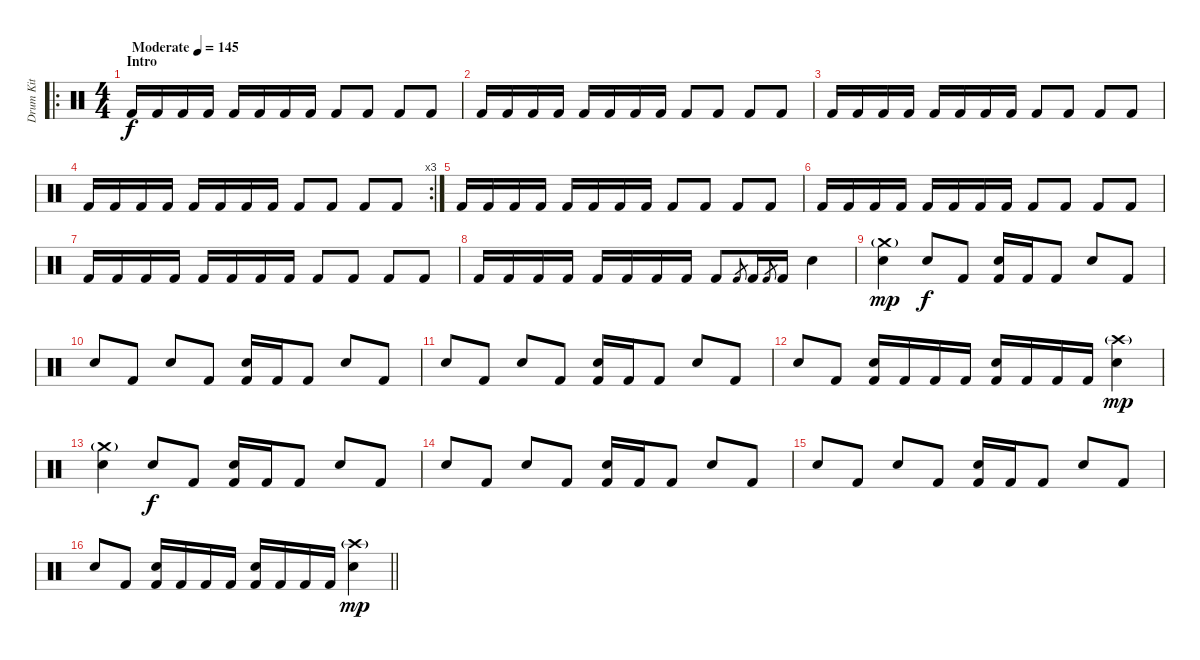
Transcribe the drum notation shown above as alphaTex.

\track ("Drum Kit" "Drum Kit") {instrument percussion}
\staff {score}
\articulation defaults
\ro
\ts (4 4)
\section ("" "Intro")
\tempo (145 "Moderate")
\clef neutral
\ks c "Kick (hit) 2".16{dy f} "Kick (hit) 2".16 "Kick (hit) 2".16 "Kick (hit) 2".16 "Kick (hit) 2".16 "Kick (hit) 2".16 "Kick (hit) 2".16 "Kick (hit) 2".16 "Kick (hit) 2".8 "Kick (hit) 2".8 "Kick (hit) 2".8 "Kick (hit) 2".8
|
"Kick (hit) 2".16 "Kick (hit) 2".16 "Kick (hit) 2".16 "Kick (hit) 2".16 "Kick (hit) 2".16 "Kick (hit) 2".16 "Kick (hit) 2".16 "Kick (hit) 2".16 "Kick (hit) 2".8 "Kick (hit) 2".8 "Kick (hit) 2".8 "Kick (hit) 2".8 |
"Kick (hit) 2".16 "Kick (hit) 2".16 "Kick (hit) 2".16 "Kick (hit) 2".16 "Kick (hit) 2".16 "Kick (hit) 2".16 "Kick (hit) 2".16 "Kick (hit) 2".16 "Kick (hit) 2".8 "Kick (hit) 2".8 "Kick (hit) 2".8 "Kick (hit) 2".8 |
\rc 3 "Kick (hit) 2".16 "Kick (hit) 2".16 "Kick (hit) 2".16 "Kick (hit) 2".16 "Kick (hit) 2".16 "Kick (hit) 2".16 "Kick (hit) 2".16 "Kick (hit) 2".16 "Kick (hit) 2".8 "Kick (hit) 2".8 "Kick (hit) 2".8 "Kick (hit) 2".8
|
"Kick (hit) 2".16 "Kick (hit) 2".16 "Kick (hit) 2".16 "Kick (hit) 2".16 "Kick (hit) 2".16 "Kick (hit) 2".16 "Kick (hit) 2".16 "Kick (hit) 2".16 "Kick (hit) 2".8 "Kick (hit) 2".8 "Kick (hit) 2".8 "Kick (hit) 2".8 |
"Kick (hit) 2".16 "Kick (hit) 2".16 "Kick (hit) 2".16 "Kick (hit) 2".16 "Kick (hit) 2".16 "Kick (hit) 2".16 "Kick (hit) 2".16 "Kick (hit) 2".16 "Kick (hit) 2".8 "Kick (hit) 2".8 "Kick (hit) 2".8 "Kick (hit) 2".8 |
"Kick (hit) 2".16 "Kick (hit) 2".16 "Kick (hit) 2".16 "Kick (hit) 2".16 "Kick (hit) 2".16 "Kick (hit) 2".16 "Kick (hit) 2".16 "Kick (hit) 2".16 "Kick (hit) 2".8 "Kick (hit) 2".8 "Kick (hit) 2".8 "Kick (hit) 2".8 |
"Kick (hit) 2".16 "Kick (hit) 2".16 "Kick (hit) 2".16 "Kick (hit) 2".16 "Kick (hit) 2".16 "Kick (hit) 2".16 "Kick (hit) 2".16 "Kick (hit) 2".16 "Kick (hit) 2".8 "Kick (hit) 2".8{gr} "Kick (hit) 2".16 "Kick (hit) 2".8{gr} "Kick (hit) 2".16 "Electric Snare (hit)".4 |
("Crash medium (hit)"{g} "Electric Snare (hit)").4{dy mp} "Electric Snare (hit)".8{dy f} "Kick (hit) 2".8 ("Electric Snare (hit)" "Kick (hit) 2").16 "Kick (hit) 2".16 "Kick (hit) 2".8 "Electric Snare (hit)".8 "Kick (hit) 2".8 |
"Electric Snare (hit)".8 "Kick (hit) 2".8 "Electric Snare (hit)".8 "Kick (hit) 2".8 ("Electric Snare (hit)" "Kick (hit) 2").16 "Kick (hit) 2".16 "Kick (hit) 2".8 "Electric Snare (hit)".8 "Kick (hit) 2".8 |
"Electric Snare (hit)".8 "Kick (hit) 2".8 "Electric Snare (hit)".8 "Kick (hit) 2".8 ("Electric Snare (hit)" "Kick (hit) 2").16 "Kick (hit) 2".16 "Kick (hit) 2".8 "Electric Snare (hit)".8 "Kick (hit) 2".8 |
"Electric Snare (hit)".8 "Kick (hit) 2".8 ("Electric Snare (hit)" "Kick (hit) 2").16 "Kick (hit) 2".16 "Kick (hit) 2".16 "Kick (hit) 2".16 ("Electric Snare (hit)" "Kick (hit) 2").16 "Kick (hit) 2".16 "Kick (hit) 2".16 "Kick (hit) 2".16 ("Crash high (hit)"{g} "Electric Snare (hit)").4{dy mp} |
("Crash medium (hit)"{g} "Electric Snare (hit)").4 "Electric Snare (hit)".8{dy f} "Kick (hit) 2".8 ("Electric Snare (hit)" "Kick (hit) 2").16 "Kick (hit) 2".16 "Kick (hit) 2".8 "Electric Snare (hit)".8 "Kick (hit) 2".8 |
"Electric Snare (hit)".8 "Kick (hit) 2".8 "Electric Snare (hit)".8 "Kick (hit) 2".8 ("Electric Snare (hit)" "Kick (hit) 2").16 "Kick (hit) 2".16 "Kick (hit) 2".8 "Electric Snare (hit)".8 "Kick (hit) 2".8 |
"Electric Snare (hit)".8 "Kick (hit) 2".8 "Electric Snare (hit)".8 "Kick (hit) 2".8 ("Electric Snare (hit)" "Kick (hit) 2").16 "Kick (hit) 2".16 "Kick (hit) 2".8 "Electric Snare (hit)".8 "Kick (hit) 2".8 |
\barLineRight lightlight "Electric Snare (hit)".8 "Kick (hit) 2".8
("Electric Snare (hit)" "Kick (hit) 2").16 "Kick (hit) 2".16 "Kick (hit) 2".16 "Kick (hit) 2".16 ("Electric Snare (hit)" "Kick (hit) 2").16 "Kick (hit) 2".16 "Kick (hit) 2".16 "Kick (hit) 2".16 ("Crash high (hit)"{g} "Electric Snare (hit)").4{dy mp}
